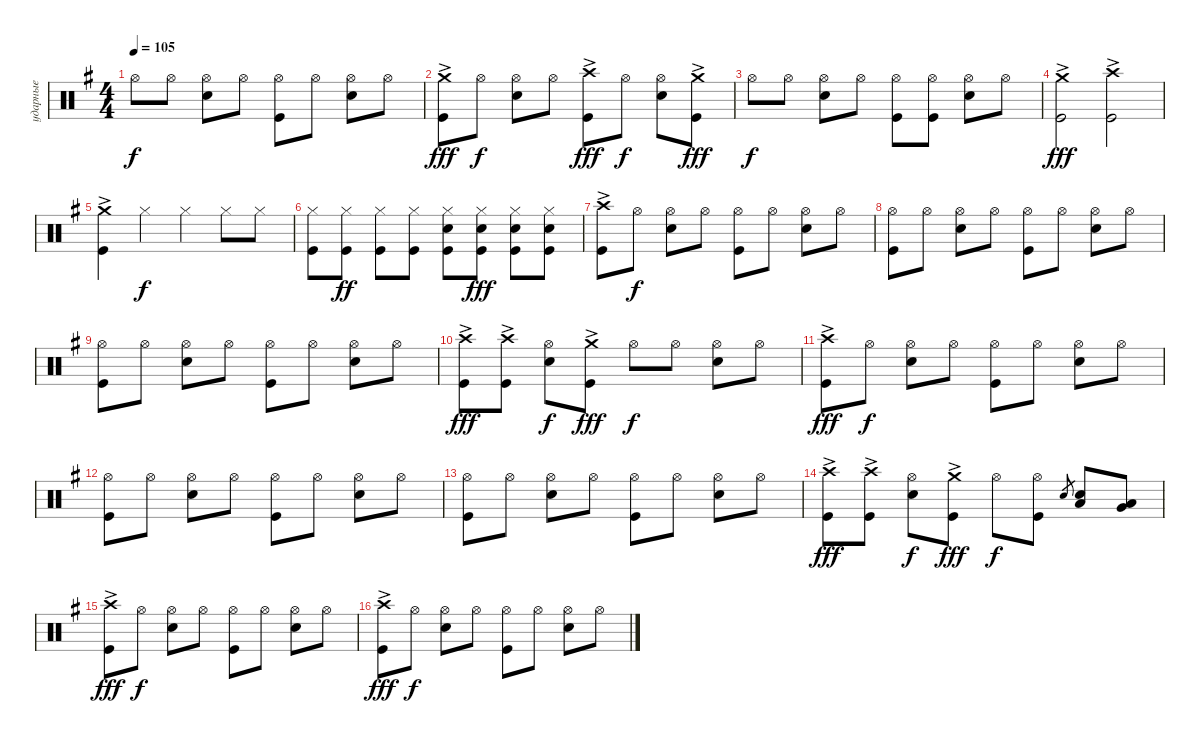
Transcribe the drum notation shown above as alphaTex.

\track ("ударные" "ударные") {instrument percussion}
\staff {score}
\articulation defaults
\ts (4 4)
\tempo 105
\clef neutral
\ks eminor "Hi-Hat (open)".8{dy f} "Hi-Hat (open)".8
("Snare (hit) 2" "Hi-Hat (open)").8 "Hi-Hat (open)".8 ("Kick (hit)" "Hi-Hat (open)").8 "Hi-Hat (open)".8 ("Snare (hit) 2" "Hi-Hat (open)").8 "Hi-Hat (open)".8 |
("Kick (hit)" "Crash medium (hit)"{ac}).8{dy fff} "Hi-Hat (open)".8{dy f} ("Snare (hit) 2" "Hi-Hat (open)").8 "Hi-Hat (open)".8 ("Kick (hit)" "Crash high (hit)"{ac}).8{dy fff} "Hi-Hat (open)".8{dy f} ("Snare (hit) 2" "Hi-Hat (open)").8 ("Kick (hit)" "Crash medium (hit)"{ac}).8{dy fff} |
"Hi-Hat (open)".8{dy f} "Hi-Hat (open)".8 ("Snare (hit) 2" "Hi-Hat (open)").8 "Hi-Hat (open)".8 ("Kick (hit)" "Hi-Hat (open)").8 ("Hi-Hat (open)" "Kick (hit)").8 ("Snare (hit) 2" "Hi-Hat (open)").8 "Hi-Hat (open)".8 |
("Kick (hit)" "Crash medium (hit)"{ac}).2{dy fff} ("Kick (hit)" "Crash high (hit)"{ac}).2 |
("Kick (hit)" "Crash medium (hit)"{ac}).4 "Hi-Hat (closed)".4{dy f} "Hi-Hat (closed)".4 "Hi-Hat (closed)".8 "Hi-Hat (closed)".8 |
("Kick (hit)" "Hi-Hat (closed)").8 ("Kick (hit)" "Hi-Hat (closed)").8{dy ff} ("Kick (hit)" "Hi-Hat (closed)").8 ("Kick (hit)" "Hi-Hat (closed)").8 ("Kick (hit)" "Snare (hit) 2" "Hi-Hat (closed)").8 ("Kick (hit)" "Snare (hit) 2" "Hi-Hat (closed)").8{dy fff} ("Kick (hit)" "Snare (hit) 2" "Hi-Hat (closed)").8 ("Kick (hit)" "Snare (hit) 2" "Hi-Hat (closed)").8 |
("Kick (hit)" "Crash high (hit)"{ac}).8 "Hi-Hat (open)".8{dy f} ("Snare (hit) 2" "Hi-Hat (open)").8 "Hi-Hat (open)".8 ("Kick (hit)" "Hi-Hat (open)").8 "Hi-Hat (open)".8 ("Snare (hit) 2" "Hi-Hat (open)").8 "Hi-Hat (open)".8 |
("Kick (hit)" "Hi-Hat (open)").8 "Hi-Hat (open)".8 ("Snare (hit) 2" "Hi-Hat (open)").8 "Hi-Hat (open)".8 ("Kick (hit)" "Hi-Hat (open)").8 "Hi-Hat (open)".8 ("Snare (hit) 2" "Hi-Hat (open)").8 "Hi-Hat (open)".8 |
("Kick (hit)" "Hi-Hat (open)").8 "Hi-Hat (open)".8 ("Snare (hit) 2" "Hi-Hat (open)").8 "Hi-Hat (open)".8 ("Kick (hit)" "Hi-Hat (open)").8 "Hi-Hat (open)".8 ("Snare (hit) 2" "Hi-Hat (open)").8 "Hi-Hat (open)".8 |
("Kick (hit)" "Crash high (hit)"{ac}).8{dy fff} ("Kick (hit)" "Crash high (hit)"{ac}).8 ("Snare (hit) 2" "Hi-Hat (open)").8{dy f} ("Kick (hit)" "Crash medium (hit)"{ac}).8{dy fff} "Hi-Hat (open)".8{dy f} "Hi-Hat (open)".8 ("Snare (hit) 2" "Hi-Hat (open)").8 "Hi-Hat (open)".8 |
("Kick (hit)" "Crash high (hit)"{ac}).8{dy fff} "Hi-Hat (open)".8{dy f} ("Snare (hit) 2" "Hi-Hat (open)").8 "Hi-Hat (open)".8 ("Kick (hit)" "Hi-Hat (open)").8 "Hi-Hat (open)".8 ("Snare (hit) 2" "Hi-Hat (open)").8 "Hi-Hat (open)".8 |
("Kick (hit)" "Hi-Hat (open)").8 "Hi-Hat (open)".8 ("Snare (hit) 2" "Hi-Hat (open)").8 "Hi-Hat (open)".8 ("Kick (hit)" "Hi-Hat (open)").8 "Hi-Hat (open)".8 ("Snare (hit) 2" "Hi-Hat (open)").8 "Hi-Hat (open)".8 |
("Kick (hit)" "Hi-Hat (open)").8 "Hi-Hat (open)".8 ("Snare (hit) 2" "Hi-Hat (open)").8 "Hi-Hat (open)".8 ("Kick (hit)" "Hi-Hat (open)").8 "Hi-Hat (open)".8 ("Snare (hit) 2" "Hi-Hat (open)").8 "Hi-Hat (open)".8 |
("Kick (hit)" "Crash high (hit)"{ac}).8{dy fff} ("Kick (hit)" "Crash high (hit)"{ac}).8 ("Snare (hit) 2" "Hi-Hat (open)").8{dy f} ("Kick (hit)" "Crash medium (hit)"{ac}).8{dy fff} "Hi-Hat (open)".8{dy f} ("Hi-Hat (open)" "Kick (hit)").8 "Snare (hit) 2".8{gr} ("Snare (hit) 2" "Low Tom (hit)").8 ("Very Low Tom (hit)" "Low Floor Tom (hit)").8 |
("Kick (hit)" "Crash high (hit)"{ac}).8{dy fff} "Hi-Hat (open)".8{dy f} ("Snare (hit) 2" "Hi-Hat (open)").8 "Hi-Hat (open)".8 ("Kick (hit)" "Hi-Hat (open)").8 "Hi-Hat (open)".8 ("Snare (hit) 2" "Hi-Hat (open)").8 "Hi-Hat (open)".8 |
("Kick (hit)" "Crash high (hit)"{ac}).8{dy fff} "Hi-Hat (open)".8{dy f} ("Snare (hit) 2" "Hi-Hat (open)").8 "Hi-Hat (open)".8 ("Kick (hit)" "Hi-Hat (open)").8 "Hi-Hat (open)".8 ("Snare (hit) 2" "Hi-Hat (open)").8 "Hi-Hat (open)".8
